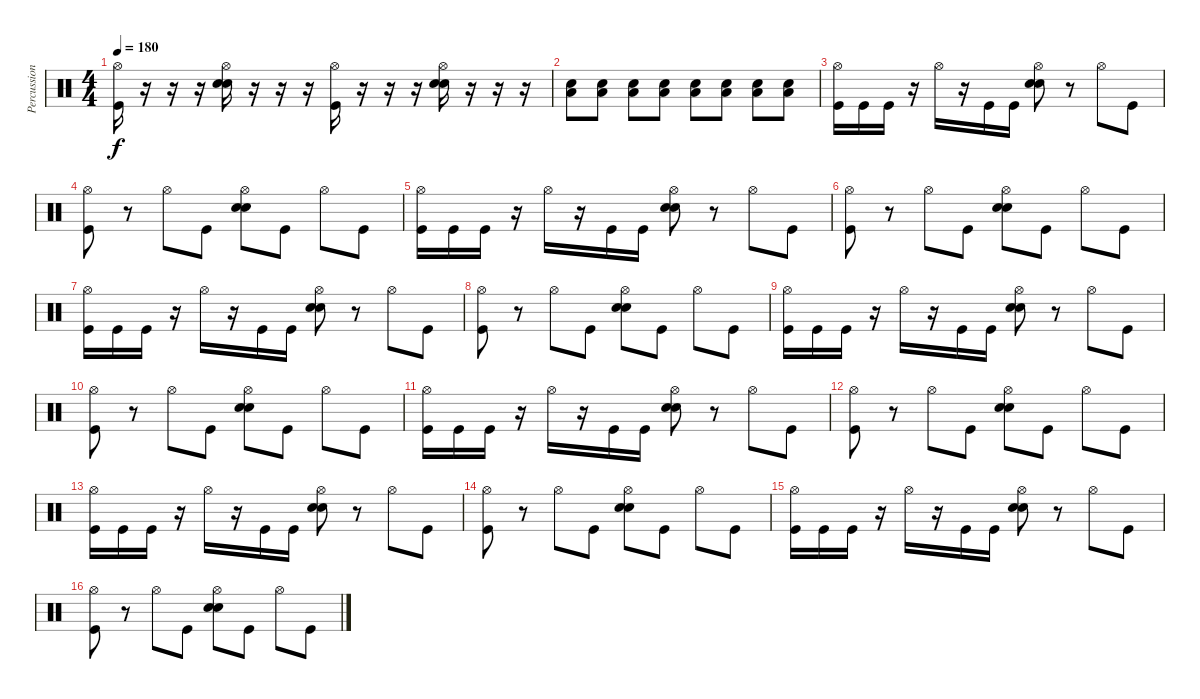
\track ("Percussion" "Percussion") {instrument percussion}
\staff {score}
\articulation defaults
\ts (4 4)
\tempo 180
\clef neutral
\ks c
("Hi-Hat (open)" "Kick (hit)").16{dy f} r.16 r.16 r.16 ("Hi-Hat (open)" "Snare (hit) 2" "Electric Snare (hit)").16 r.16 r.16 r.16 ("Hi-Hat (open)" "Kick (hit)").16 r.16 r.16 r.16 ("Hi-Hat (open)" "Snare (hit) 2" "Electric Snare (hit)").16 r.16 r.16 r.16 |
("Snare (hit) 2" "Low Floor Tom (hit)").8 ("Snare (hit) 2" "Low Floor Tom (hit)").8 ("Snare (hit) 2" "Low Floor Tom (hit)").8 ("Snare (hit) 2" "Low Floor Tom (hit)").8 ("Snare (hit) 2" "Low Floor Tom (hit)").8 ("Snare (hit) 2" "Low Floor Tom (hit)").8 ("Snare (hit) 2" "Low Floor Tom (hit)").8 ("Snare (hit) 2" "Low Floor Tom (hit)").8 |
("Hi-Hat (open)" "Kick (hit)").16 "Kick (hit)".16 "Kick (hit)".16 r.16 "Hi-Hat (open)".16 r.16 "Kick (hit)".16 "Kick (hit)".16 ("Hi-Hat (open)" "Snare (hit) 2" "Electric Snare (hit)").8 r.8 "Hi-Hat (open)".8 "Kick (hit)".8 |
("Hi-Hat (open)" "Kick (hit)").8 r.8 "Hi-Hat (open)".8 "Kick (hit)".8 ("Hi-Hat (open)" "Snare (hit) 2" "Electric Snare (hit)").8 "Kick (hit)".8 "Hi-Hat (open)".8 "Kick (hit)".8 |
("Hi-Hat (open)" "Kick (hit)").16 "Kick (hit)".16 "Kick (hit)".16 r.16 "Hi-Hat (open)".16 r.16 "Kick (hit)".16 "Kick (hit)".16 ("Hi-Hat (open)" "Snare (hit) 2" "Electric Snare (hit)").8 r.8 "Hi-Hat (open)".8 "Kick (hit)".8 |
("Hi-Hat (open)" "Kick (hit)").8 r.8 "Hi-Hat (open)".8 "Kick (hit)".8 ("Hi-Hat (open)" "Snare (hit) 2" "Electric Snare (hit)").8 "Kick (hit)".8 "Hi-Hat (open)".8 "Kick (hit)".8 |
("Hi-Hat (open)" "Kick (hit)").16 "Kick (hit)".16 "Kick (hit)".16 r.16 "Hi-Hat (open)".16 r.16 "Kick (hit)".16 "Kick (hit)".16 ("Hi-Hat (open)" "Snare (hit) 2" "Electric Snare (hit)").8 r.8 "Hi-Hat (open)".8 "Kick (hit)".8 |
("Hi-Hat (open)" "Kick (hit)").8 r.8 "Hi-Hat (open)".8 "Kick (hit)".8 ("Hi-Hat (open)" "Snare (hit) 2" "Electric Snare (hit)").8 "Kick (hit)".8 "Hi-Hat (open)".8 "Kick (hit)".8 |
("Hi-Hat (open)" "Kick (hit)").16 "Kick (hit)".16 "Kick (hit)".16 r.16 "Hi-Hat (open)".16 r.16 "Kick (hit)".16 "Kick (hit)".16 ("Hi-Hat (open)" "Snare (hit) 2" "Electric Snare (hit)").8 r.8 "Hi-Hat (open)".8 "Kick (hit)".8 |
("Hi-Hat (open)" "Kick (hit)").8 r.8 "Hi-Hat (open)".8 "Kick (hit)".8 ("Hi-Hat (open)" "Snare (hit) 2" "Electric Snare (hit)").8 "Kick (hit)".8 "Hi-Hat (open)".8 "Kick (hit)".8 |
("Hi-Hat (open)" "Kick (hit)").16 "Kick (hit)".16 "Kick (hit)".16 r.16 "Hi-Hat (open)".16 r.16 "Kick (hit)".16 "Kick (hit)".16 ("Hi-Hat (open)" "Snare (hit) 2" "Electric Snare (hit)").8 r.8 "Hi-Hat (open)".8 "Kick (hit)".8 |
("Hi-Hat (open)" "Kick (hit)").8 r.8 "Hi-Hat (open)".8 "Kick (hit)".8 ("Hi-Hat (open)" "Snare (hit) 2" "Electric Snare (hit)").8 "Kick (hit)".8 "Hi-Hat (open)".8 "Kick (hit)".8 |
("Hi-Hat (open)" "Kick (hit)").16 "Kick (hit)".16 "Kick (hit)".16 r.16 "Hi-Hat (open)".16 r.16 "Kick (hit)".16 "Kick (hit)".16 ("Hi-Hat (open)" "Snare (hit) 2" "Electric Snare (hit)").8 r.8 "Hi-Hat (open)".8 "Kick (hit)".8 |
("Hi-Hat (open)" "Kick (hit)").8 r.8 "Hi-Hat (open)".8 "Kick (hit)".8 ("Hi-Hat (open)" "Snare (hit) 2" "Electric Snare (hit)").8 "Kick (hit)".8 "Hi-Hat (open)".8 "Kick (hit)".8 |
("Hi-Hat (open)" "Kick (hit)").16 "Kick (hit)".16 "Kick (hit)".16 r.16 "Hi-Hat (open)".16 r.16 "Kick (hit)".16 "Kick (hit)".16 ("Hi-Hat (open)" "Snare (hit) 2" "Electric Snare (hit)").8 r.8 "Hi-Hat (open)".8 "Kick (hit)".8 |
("Hi-Hat (open)" "Kick (hit)").8 r.8 "Hi-Hat (open)".8 "Kick (hit)".8 ("Hi-Hat (open)" "Snare (hit) 2" "Electric Snare (hit)").8 "Kick (hit)".8 "Hi-Hat (open)".8 "Kick (hit)".8
